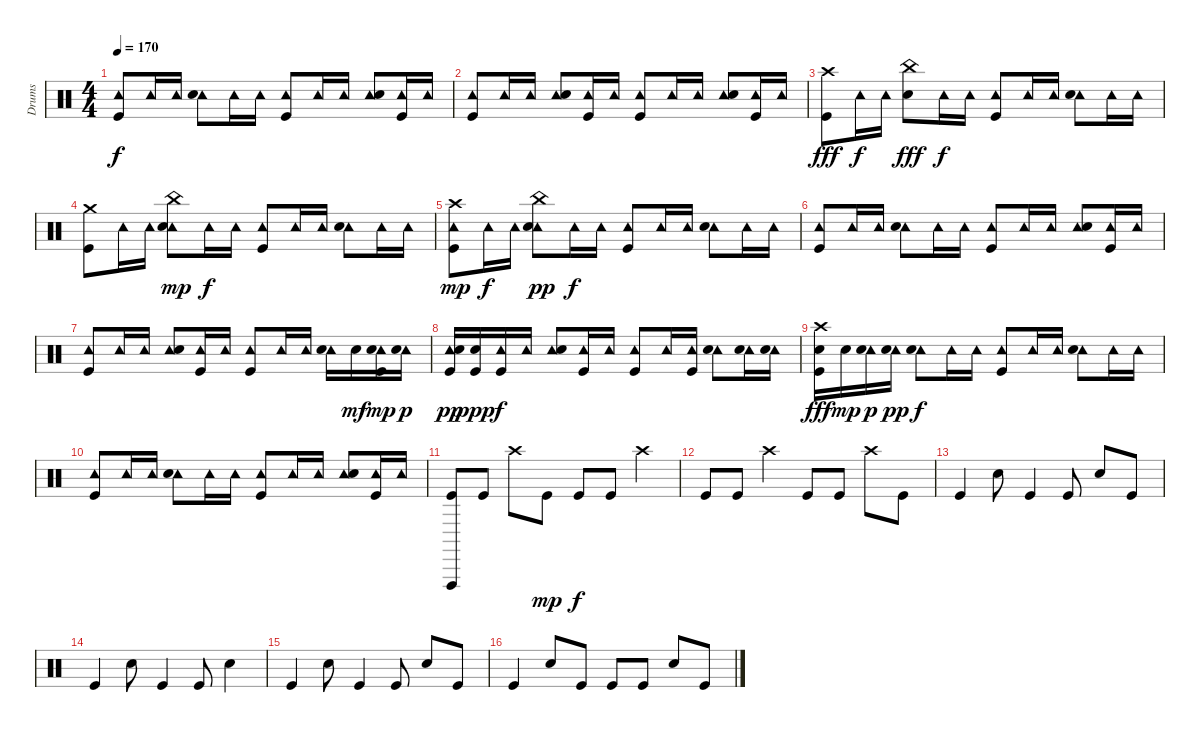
\track ("Drums" "Drums") {instrument percussion}
\staff {score}
\articulation defaults
\ts (4 4)
\tempo 170
\clef neutral
\ks c
("Tambourine (hit)" "Kick (hit)").8{dy f} "Tambourine (hit)".16 "Tambourine (hit)".16 ("Tambourine (hit)" "Electric Snare (hit)").8 "Tambourine (hit)".16 "Tambourine (hit)".16 ("Tambourine (hit)" "Kick (hit)").8 "Tambourine (hit)".16 "Tambourine (hit)".16 ("Tambourine (hit)" "Electric Snare (hit)").8 ("Tambourine (hit)" "Kick (hit)").16 "Tambourine (hit)".16 |
("Tambourine (hit)" "Kick (hit)").8 "Tambourine (hit)".16 "Tambourine (hit)".16 ("Tambourine (hit)" "Electric Snare (hit)").8 ("Tambourine (hit)" "Kick (hit)").16 "Tambourine (hit)".16 ("Tambourine (hit)" "Kick (hit)").8 "Tambourine (hit)".16 "Tambourine (hit)".16 ("Tambourine (hit)" "Electric Snare (hit)").8 ("Tambourine (hit)" "Kick (hit)").16 "Tambourine (hit)".16 |
("Crash high (hit)" "Kick (hit)").8{dy fff} "Tambourine (hit)".16{dy f} "Tambourine (hit)".16 ("China (hit)" "Electric Snare (hit)").8{dy fff} "Tambourine (hit)".16{dy f} "Tambourine (hit)".16 ("Tambourine (hit)" "Kick (hit)").8 "Tambourine (hit)".16 "Tambourine (hit)".16 ("Tambourine (hit)" "Electric Snare (hit)").8 "Tambourine (hit)".16 "Tambourine (hit)".16 |
("Crash medium (hit)" "Kick (hit)").8 "Tambourine (hit)".16 "Tambourine (hit)".16 ("China (hit)" "Tambourine (hit)" "Electric Snare (hit)").8{dy mp} "Tambourine (hit)".16{dy f} "Tambourine (hit)".16 ("Tambourine (hit)" "Kick (hit)").8 "Tambourine (hit)".16 "Tambourine (hit)".16 ("Tambourine (hit)" "Electric Snare (hit)").8 "Tambourine (hit)".16 "Tambourine (hit)".16 |
("Crash high (hit)" "Tambourine (hit)" "Kick (hit)").8{dy mp} "Tambourine (hit)".16{dy f} "Tambourine (hit)".16 ("China (hit)" "Tambourine (hit)" "Electric Snare (hit)").8{dy pp} "Tambourine (hit)".16{dy f} "Tambourine (hit)".16 ("Tambourine (hit)" "Kick (hit)").8 "Tambourine (hit)".16 "Tambourine (hit)".16 ("Tambourine (hit)" "Electric Snare (hit)").8 "Tambourine (hit)".16 "Tambourine (hit)".16 |
("Tambourine (hit)" "Kick (hit)").8 "Tambourine (hit)".16 "Tambourine (hit)".16 ("Tambourine (hit)" "Electric Snare (hit)").8 "Tambourine (hit)".16 "Tambourine (hit)".16 ("Tambourine (hit)" "Kick (hit)").8 "Tambourine (hit)".16 "Tambourine (hit)".16 ("Tambourine (hit)" "Electric Snare (hit)").8 ("Tambourine (hit)" "Kick (hit)").16 "Tambourine (hit)".16 |
("Tambourine (hit)" "Kick (hit)").8 "Tambourine (hit)".16 "Tambourine (hit)".16 ("Tambourine (hit)" "Electric Snare (hit)").8 ("Tambourine (hit)" "Kick (hit)").16 "Tambourine (hit)".16 ("Tambourine (hit)" "Kick (hit)").8 "Tambourine (hit)".16 "Tambourine (hit)".16 ("Tambourine (hit)" "Electric Snare (hit)").16 "Electric Snare (hit)".16{dy mf} ("Tambourine (hit)" "Electric Snare (hit)" "Kick (hit)").16{dy mp} ("Tambourine (hit)" "Electric Snare (hit)").16{dy p} |
("Tambourine (hit)" "Electric Snare (hit)" "Kick (hit)").16{dy pp} ("Electric Snare (hit)" "Kick (hit)").16{dy ppp} ("Tambourine (hit)" "Kick (hit)").16{dy f} "Tambourine (hit)".16 ("Tambourine (hit)" "Electric Snare (hit)").8 ("Tambourine (hit)" "Kick (hit)").16 "Tambourine (hit)".16 ("Tambourine (hit)" "Kick (hit)").8 "Tambourine (hit)".16 ("Tambourine (hit)" "Kick (hit)").16 ("Tambourine (hit)" "Electric Snare (hit)").8 ("Tambourine (hit)" "Electric Snare (hit)").16 ("Tambourine (hit)" "Electric Snare (hit)").16 |
("Crash high (hit)" "Electric Snare (hit)" "Kick (hit)").16{dy fff} "Electric Snare (hit)".16{dy mp} ("Tambourine (hit)" "Electric Snare (hit)").16{dy p} ("Tambourine (hit)" "Electric Snare (hit)").16{dy pp} ("Tambourine (hit)" "Electric Snare (hit)").8{dy f} "Tambourine (hit)".16 "Tambourine (hit)".16 ("Tambourine (hit)" "Kick (hit)").8 "Tambourine (hit)".16 "Tambourine (hit)".16 ("Tambourine (hit)" "Electric Snare (hit)").8 "Tambourine (hit)".16 "Tambourine (hit)".16 |
("Tambourine (hit)" "Kick (hit)").8 "Tambourine (hit)".16 "Tambourine (hit)".16 ("Tambourine (hit)" "Electric Snare (hit)").8 "Tambourine (hit)".16 "Tambourine (hit)".16 ("Tambourine (hit)" "Kick (hit)").8 "Tambourine (hit)".16 "Tambourine (hit)".16 ("Tambourine (hit)" "Electric Snare (hit)").8 ("Tambourine (hit)" "Kick (hit)").16 "Tambourine (hit)".16 |
("Vibraslap (hit)" "Kick (hit)").8 "Kick (hit)".8 "Crash high (hit)".8 "Kick (hit)".8{dy mp} "Kick (hit)".8{dy f} "Kick (hit)".8 "Crash high (hit)".4 |
"Kick (hit)".8 "Kick (hit)".8 "Crash high (hit)".4 "Kick (hit)".8 "Kick (hit)".8 "Crash high (hit)".8 "Kick (hit)".8 |
"Kick (hit)".4 "Electric Snare (hit)".8 "Kick (hit)".4 "Kick (hit)".8 "Electric Snare (hit)".8 "Kick (hit)".8 |
"Kick (hit)".4 "Electric Snare (hit)".8 "Kick (hit)".4 "Kick (hit)".8 "Electric Snare (hit)".4 |
"Kick (hit)".4 "Electric Snare (hit)".8 "Kick (hit)".4 "Kick (hit)".8 "Electric Snare (hit)".8 "Kick (hit)".8 |
"Kick (hit)".4 "Electric Snare (hit)".8 "Kick (hit)".8 "Kick (hit)".8 "Kick (hit)".8 "Electric Snare (hit)".8 "Kick (hit)".8
